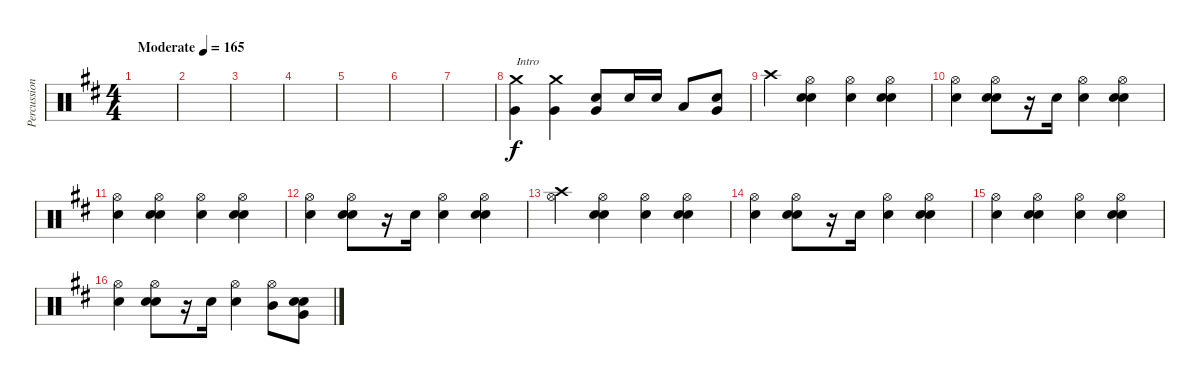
\track ("Percussion" "Percussion") {instrument percussion}
\staff {score}
\articulation defaults
\ts (4 4)
\tempo (165 "Moderate")
\clef neutral
\ks d
|
|
|
|
|
|
|
("Crash medium (hit)" "Very Low Tom (hit)").4{txt "Intro" volume 13} ("Crash medium (hit)" "Very Low Tom (hit)").4 ("Very Low Tom (hit)" "Snare (hit) 2").8 "Electric Snare (hit)".16 "Snare (hit) 2".16 "Low Tom (hit)".8 ("Very Low Tom (hit)" "Snare (hit) 2").8 |
"Crash high (hit)".4 ("Hi-Hat (open)" "Snare (hit) 2" "Electric Snare (hit)").4 ("Hi-Hat (open)" "Snare (hit) 2").4 ("Hi-Hat (open)" "Snare (hit) 2" "Electric Snare (hit)").4 |
("Hi-Hat (open)" "Snare (hit) 2").4 ("Hi-Hat (open)" "Snare (hit) 2" "Electric Snare (hit)").8 r.16 "Snare (hit) 2".16 ("Hi-Hat (open)" "Snare (hit) 2").4 ("Hi-Hat (open)" "Snare (hit) 2" "Electric Snare (hit)").4 |
("Hi-Hat (open)" "Snare (hit) 2").4 ("Hi-Hat (open)" "Snare (hit) 2" "Electric Snare (hit)").4 ("Hi-Hat (open)" "Snare (hit) 2").4 ("Hi-Hat (open)" "Snare (hit) 2" "Electric Snare (hit)").4 |
("Hi-Hat (open)" "Snare (hit) 2").4 ("Hi-Hat (open)" "Snare (hit) 2" "Electric Snare (hit)").8 r.16 "Snare (hit) 2".16 ("Hi-Hat (open)" "Snare (hit) 2").4 ("Hi-Hat (open)" "Snare (hit) 2" "Electric Snare (hit)").4 |
("Hi-Hat (open)" "Crash high (hit)").4 ("Hi-Hat (open)" "Snare (hit) 2" "Electric Snare (hit)").4 ("Hi-Hat (open)" "Snare (hit) 2").4 ("Hi-Hat (open)" "Snare (hit) 2" "Electric Snare (hit)").4 |
("Hi-Hat (open)" "Snare (hit) 2").4 ("Hi-Hat (open)" "Snare (hit) 2" "Electric Snare (hit)").8 r.16 "Snare (hit) 2".16 ("Hi-Hat (open)" "Snare (hit) 2").4 ("Hi-Hat (open)" "Snare (hit) 2" "Electric Snare (hit)").4 |
("Hi-Hat (open)" "Snare (hit) 2").4 ("Hi-Hat (open)" "Snare (hit) 2" "Electric Snare (hit)").4 ("Hi-Hat (open)" "Snare (hit) 2").4 ("Hi-Hat (open)" "Snare (hit) 2" "Electric Snare (hit)").4 |
("Hi-Hat (open)" "Snare (hit) 2").4 ("Hi-Hat (open)" "Snare (hit) 2" "Electric Snare (hit)").8 r.16 "Snare (hit) 2".16 ("Hi-Hat (open)" "Snare (hit) 2").4 ("Mid Tom (hit)" "Hi-Hat (open)").8 ("Very Low Tom (hit)" "Snare (hit) 2" "Electric Snare (hit)").8
